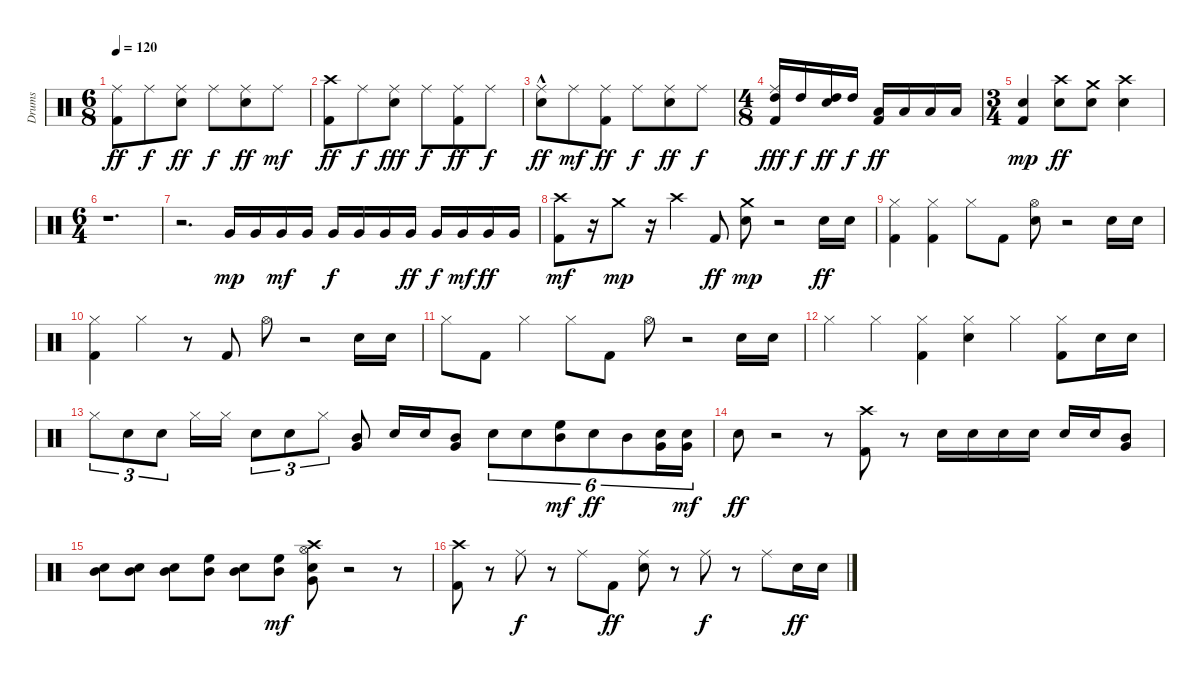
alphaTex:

\track ("Drums" "Drums") {instrument percussion}
\staff {score}
\articulation defaults
\ts (6 8)
\tempo 120
\clef neutral
\ks c
("Kick (hit) 2" "Ride (middle)").8{dy ff} "Ride (middle)".8{dy f} ("Snare (hit) 2" "Ride (middle)").8{dy ff} "Ride (middle)".8{dy f} ("Snare (hit) 2" "Ride (middle)").8{dy ff} "Ride (middle)".8{dy mf} |
("Kick (hit) 2" "Crash high (hit)").8{dy ff} "Ride (middle)".8{dy f} ("Snare (hit) 2" "Ride (middle)").8{dy fff} "Ride (middle)".8{dy f} ("Kick (hit) 2" "Ride (middle)").8{dy ff} "Ride (middle)".8{dy f} |
("Snare (hit) 2" "Ride (middle)"{hac}).8{dy ff} "Ride (middle)".8{dy mf} ("Kick (hit) 2" "Ride (middle)").8{dy ff} "Ride (middle)".8{dy f} ("Snare (hit) 2" "Ride (middle)").8{dy ff} "Ride (middle)".8{dy f} |
\ts (4 8)
("Kick (hit) 2" "High Tom (hit)" "Ride (middle)").16{dy fff} "High Tom (hit)".16{dy f} ("Snare (hit) 2" "High Tom (hit)").16{dy ff} "High Tom (hit)".16{dy f} ("Kick (hit) 2" "Low Tom (hit)").16{dy ff} "Low Tom (hit)".16 "Low Tom (hit)".16 "Low Tom (hit)".16 |
\ts (3 4)
("Kick (hit) 2" "Snare (hit) 2").4{dy mp} ("Snare (hit) 2" "Crash high (hit)").8{dy ff} ("Snare (hit) 2" "Crash medium (hit)").8 ("Snare (hit) 2" "Crash high (hit)").4 |
\ts (6 4)
r.1{d} |
r.2{d} "Very Low Tom (hit)".16{dy mp} "Very Low Tom (hit)".16 "Very Low Tom (hit)".16{dy mf} "Very Low Tom (hit)".16 "Very Low Tom (hit)".16{dy f} "Very Low Tom (hit)".16 "Very Low Tom (hit)".16 "Very Low Tom (hit)".16{dy ff} "Very Low Tom (hit)".16{dy f} "Very Low Tom (hit)".16{dy mf} "Very Low Tom (hit)".16{dy ff} "Very Low Tom (hit)".16 |
("Kick (hit) 2" "Crash high (hit)").8{dy mf} r.16 "Crash medium (hit)".8{dy mp} r.16 "Crash high (hit)".4 "Kick (hit) 2".8{dy ff} ("Snare (hit) 2" "Crash medium (hit)").8{dy mp} r.2 "Snare (hit) 2".16{dy ff} "Snare (hit) 2".16 |
("Kick (hit) 2" "Hi-Hat (closed)").4 ("Kick (hit) 2" "Hi-Hat (closed)").4 "Hi-Hat (closed)".8 "Kick (hit) 2".8 ("Snare (hit) 2" "Hi-Hat (open)").8 r.2 "Snare (hit) 2".16 "Snare (hit) 2".16 |
("Kick (hit) 2" "Hi-Hat (closed)").4 "Hi-Hat (closed)".4 r.8 "Kick (hit) 2".8 "Hi-Hat (open)".8 r.2 "Snare (hit) 2".16 "Snare (hit) 2".16 |
"Hi-Hat (closed)".8 "Kick (hit) 2".8 "Hi-Hat (closed)".4 "Hi-Hat (closed)".8 "Kick (hit) 2".8 "Hi-Hat (open)".8 r.2 "Snare (hit) 2".16 "Snare (hit) 2".16 |
"Hi-Hat (closed)".4 "Hi-Hat (closed)".4 ("Kick (hit) 2" "Hi-Hat (closed)").4 ("Snare (hit) 2" "Hi-Hat (closed)").4 "Hi-Hat (closed)".4 ("Kick (hit) 2" "Hi-Hat (closed)").8 "Snare (hit) 2".16 "Snare (hit) 2".16 |
"Hi-Hat (closed)".8{tu (3 2)} "Snare (hit) 2".8{tu (3 2)} "Snare (hit) 2".8{tu (3 2)} "Hi-Hat (closed)".16 "Hi-Hat (closed)".16 "Snare (hit) 2".8{tu (3 2)} "Snare (hit) 2".8{tu (3 2)} "Hi-Hat (closed)".8{tu (3 2)} ("Very Low Tom (hit)" "Mid Tom (hit)").8 "Snare (hit) 2".16 "Snare (hit) 2".16 ("Very Low Tom (hit)" "Mid Tom (hit)").8 "Snare (hit) 2".8{tu (6 4)} "Snare (hit) 2".8{tu (6 4)} ("Mid Tom (hit)" "High Floor Tom (hit)").8{tu (6 4) dy mf} "Snare (hit) 2".8{tu (6 4) dy ff} "Mid Tom (hit)".8{tu (6 4)} ("Snare (hit) 2" "Very Low Tom (hit)").16{tu (6 4)} ("Snare (hit) 2" "Very Low Tom (hit)").16{tu (6 4) dy mf} |
"Snare (hit) 2".8{dy ff} r.2 r.8 ("Kick (hit) 2" "Crash high (hit)").8 r.8 "Snare (hit) 2".16 "Snare (hit) 2".16 "Snare (hit) 2".16 "Snare (hit) 2".16 "Snare (hit) 2".16 "Snare (hit) 2".16 ("Very Low Tom (hit)" "Mid Tom (hit)").8 |
("Snare (hit) 2" "Mid Tom (hit)").8 ("Snare (hit) 2" "Mid Tom (hit)").8 ("Snare (hit) 2" "Mid Tom (hit)").8 ("Mid Tom (hit)" "High Floor Tom (hit)").8 ("Snare (hit) 2" "Mid Tom (hit)").8 ("Mid Tom (hit)" "High Floor Tom (hit)").8{dy mf} ("Snare (hit) 2" "Very Low Tom (hit)" "Hi-Hat (open)" "Crash high (hit)").8 r.2 r.8 |
("Kick (hit) 2" "Crash high (hit)").8 r.8 "Ride (middle)".8{dy f} r.8 "Ride (middle)".8 "Kick (hit) 2".8{dy ff} ("Snare (hit) 2" "Ride (middle)").8 r.8 "Ride (middle)".8{dy f} r.8 "Ride (middle)".8 "Snare (hit) 2".16{dy ff} "Snare (hit) 2".16
